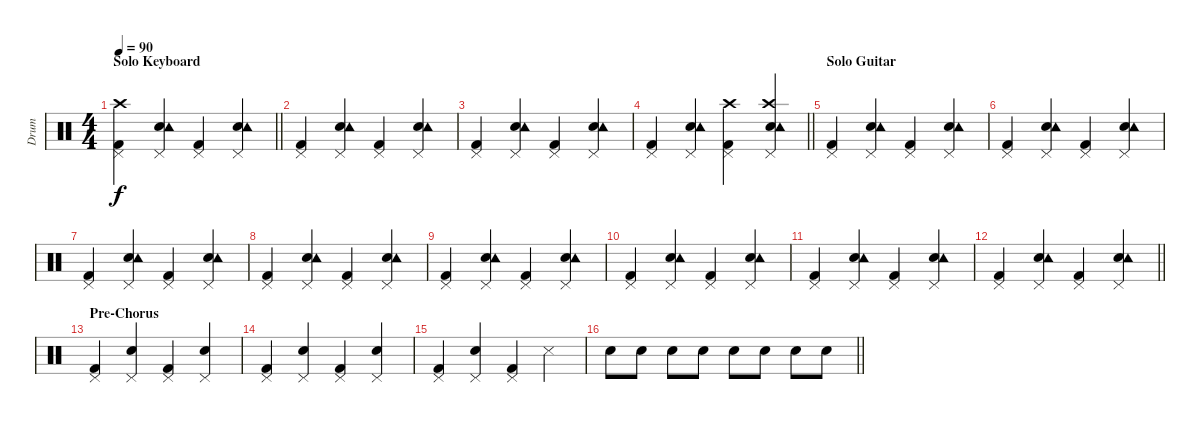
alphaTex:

\track ("Drum" "Drum") {instrument percussion}
\staff {score}
\articulation defaults
\ts (4 4)
\section ("" "Solo Keyboard")
\tempo 90
\clef neutral
\barLineRight lightlight
\ks c
("Pedal Hi-Hat (hit)" "Kick (hit) 2" "Crash high (hit)").4{dy f} ("Pedal Hi-Hat (hit)" "Electric Snare (hit)" "Tambourine (hit)").4 ("Pedal Hi-Hat (hit)" "Kick (hit) 2").4 ("Pedal Hi-Hat (hit)" "Electric Snare (hit)" "Tambourine (hit)").4 |
("Pedal Hi-Hat (hit)" "Kick (hit) 2").4 ("Pedal Hi-Hat (hit)" "Electric Snare (hit)" "Tambourine (hit)").4 ("Pedal Hi-Hat (hit)" "Kick (hit) 2").4 ("Pedal Hi-Hat (hit)" "Electric Snare (hit)" "Tambourine (hit)").4 |
("Pedal Hi-Hat (hit)" "Kick (hit) 2").4 ("Pedal Hi-Hat (hit)" "Electric Snare (hit)" "Tambourine (hit)").4 ("Pedal Hi-Hat (hit)" "Kick (hit) 2").4 ("Pedal Hi-Hat (hit)" "Electric Snare (hit)" "Tambourine (hit)").4 |
\barLineRight lightlight
("Pedal Hi-Hat (hit)" "Kick (hit) 2").4 ("Pedal Hi-Hat (hit)" "Electric Snare (hit)" "Tambourine (hit)").4 ("Pedal Hi-Hat (hit)" "Kick (hit) 2" "Crash high (hit)").4 ("Pedal Hi-Hat (hit)" "Electric Snare (hit)" "Tambourine (hit)" "Crash high (hit)").4 |
\section ("" "Solo Guitar")
("Pedal Hi-Hat (hit)" "Kick (hit) 2").4 ("Pedal Hi-Hat (hit)" "Electric Snare (hit)" "Tambourine (hit)").4 ("Pedal Hi-Hat (hit)" "Kick (hit) 2").4 ("Pedal Hi-Hat (hit)" "Electric Snare (hit)" "Tambourine (hit)").4 |
("Pedal Hi-Hat (hit)" "Kick (hit) 2").4 ("Pedal Hi-Hat (hit)" "Electric Snare (hit)" "Tambourine (hit)").4 ("Pedal Hi-Hat (hit)" "Kick (hit) 2").4 ("Pedal Hi-Hat (hit)" "Electric Snare (hit)" "Tambourine (hit)").4 |
("Pedal Hi-Hat (hit)" "Kick (hit) 2").4 ("Pedal Hi-Hat (hit)" "Electric Snare (hit)" "Tambourine (hit)").4 ("Pedal Hi-Hat (hit)" "Kick (hit) 2").4 ("Pedal Hi-Hat (hit)" "Electric Snare (hit)" "Tambourine (hit)").4 |
("Pedal Hi-Hat (hit)" "Kick (hit) 2").4 ("Pedal Hi-Hat (hit)" "Electric Snare (hit)" "Tambourine (hit)").4 ("Pedal Hi-Hat (hit)" "Kick (hit) 2").4 ("Pedal Hi-Hat (hit)" "Electric Snare (hit)" "Tambourine (hit)").4 |
("Pedal Hi-Hat (hit)" "Kick (hit) 2").4 ("Pedal Hi-Hat (hit)" "Electric Snare (hit)" "Tambourine (hit)").4 ("Pedal Hi-Hat (hit)" "Kick (hit) 2").4 ("Pedal Hi-Hat (hit)" "Electric Snare (hit)" "Tambourine (hit)").4 |
("Pedal Hi-Hat (hit)" "Kick (hit) 2").4 ("Pedal Hi-Hat (hit)" "Electric Snare (hit)" "Tambourine (hit)").4 ("Pedal Hi-Hat (hit)" "Kick (hit) 2").4 ("Pedal Hi-Hat (hit)" "Electric Snare (hit)" "Tambourine (hit)").4 |
("Pedal Hi-Hat (hit)" "Kick (hit) 2").4 ("Pedal Hi-Hat (hit)" "Electric Snare (hit)" "Tambourine (hit)").4 ("Pedal Hi-Hat (hit)" "Kick (hit) 2").4 ("Pedal Hi-Hat (hit)" "Electric Snare (hit)" "Tambourine (hit)").4 |
\barLineRight lightlight
("Pedal Hi-Hat (hit)" "Kick (hit) 2").4 ("Pedal Hi-Hat (hit)" "Electric Snare (hit)" "Tambourine (hit)").4 ("Pedal Hi-Hat (hit)" "Kick (hit) 2").4 ("Pedal Hi-Hat (hit)" "Electric Snare (hit)" "Tambourine (hit)").4 |
\section ("" "Pre-Chorus")
("Pedal Hi-Hat (hit)" "Kick (hit) 2").4 ("Pedal Hi-Hat (hit)" "Electric Snare (hit)").4 ("Pedal Hi-Hat (hit)" "Kick (hit) 2").4 ("Pedal Hi-Hat (hit)" "Electric Snare (hit)").4 |
("Pedal Hi-Hat (hit)" "Kick (hit) 2").4 ("Pedal Hi-Hat (hit)" "Electric Snare (hit)").4 ("Pedal Hi-Hat (hit)" "Kick (hit) 2").4 ("Pedal Hi-Hat (hit)" "Electric Snare (hit)").4 |
("Pedal Hi-Hat (hit)" "Kick (hit) 2").4 ("Pedal Hi-Hat (hit)" "Electric Snare (hit)").4 ("Pedal Hi-Hat (hit)" "Kick (hit) 2").4 "Snare (side stick) 3".4{volume 3} |
\barLineRight lightlight "Electric Snare (hit)".8{volume 11} "Electric Snare (hit)".8 "Electric Snare (hit)".8 "Electric Snare (hit)".8 "Electric Snare (hit)".8 "Electric Snare (hit)".8 "Electric Snare (hit)".8 "Electric Snare (hit)".8
